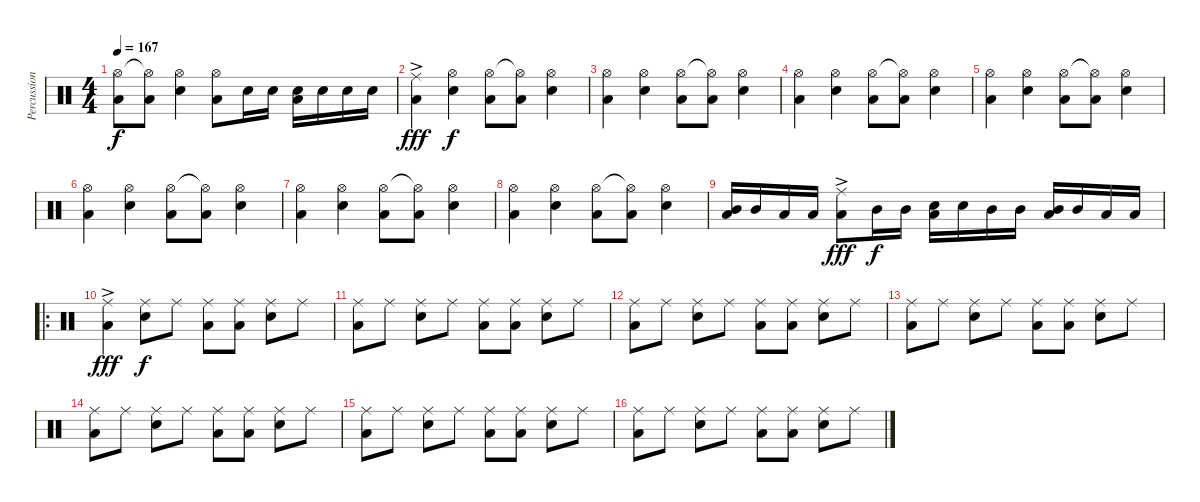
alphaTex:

\track ("Percussion" "Percussion") {instrument percussion}
\staff {score}
\articulation defaults
\ts (4 4)
\tempo 167
\clef neutral
\ks c
("Hi-Hat (open)" "Low Floor Tom (hit)").8{dy f} ("Hi-Hat (open)"{t} "Low Floor Tom (hit)").8 ("Hi-Hat (open)" "Snare (hit) 2").4 ("Hi-Hat (open)" "Low Floor Tom (hit)").8 "Snare (hit) 2".16 "Snare (hit) 2".16 ("Snare (hit) 2" "Low Floor Tom (hit)").16 "Snare (hit) 2".16 "Snare (hit) 2".16 "Snare (hit) 2".16 |
("Ride (middle)"{ac} "Low Floor Tom (hit)").4{dy fff} ("Hi-Hat (open)" "Snare (hit) 2").4{dy f} ("Hi-Hat (open)" "Low Floor Tom (hit)").8 ("Hi-Hat (open)"{t} "Low Floor Tom (hit)").8 ("Hi-Hat (open)" "Snare (hit) 2").4 |
("Hi-Hat (open)" "Low Floor Tom (hit)").4 ("Hi-Hat (open)" "Snare (hit) 2").4 ("Hi-Hat (open)" "Low Floor Tom (hit)").8 ("Hi-Hat (open)"{t} "Low Floor Tom (hit)").8 ("Hi-Hat (open)" "Snare (hit) 2").4 |
("Hi-Hat (open)" "Low Floor Tom (hit)").4 ("Hi-Hat (open)" "Snare (hit) 2").4 ("Hi-Hat (open)" "Low Floor Tom (hit)").8 ("Hi-Hat (open)"{t} "Low Floor Tom (hit)").8 ("Hi-Hat (open)" "Snare (hit) 2").4 |
("Hi-Hat (open)" "Low Floor Tom (hit)").4 ("Hi-Hat (open)" "Snare (hit) 2").4 ("Hi-Hat (open)" "Low Floor Tom (hit)").8 ("Hi-Hat (open)"{t} "Low Floor Tom (hit)").8 ("Hi-Hat (open)" "Snare (hit) 2").4 |
("Hi-Hat (open)" "Low Floor Tom (hit)").4 ("Hi-Hat (open)" "Snare (hit) 2").4 ("Hi-Hat (open)" "Low Floor Tom (hit)").8 ("Hi-Hat (open)"{t} "Low Floor Tom (hit)").8 ("Hi-Hat (open)" "Snare (hit) 2").4 |
("Hi-Hat (open)" "Low Floor Tom (hit)").4 ("Hi-Hat (open)" "Snare (hit) 2").4 ("Hi-Hat (open)" "Low Floor Tom (hit)").8 ("Hi-Hat (open)"{t} "Low Floor Tom (hit)").8 ("Hi-Hat (open)" "Snare (hit) 2").4 |
("Hi-Hat (open)" "Low Floor Tom (hit)").4 ("Hi-Hat (open)" "Snare (hit) 2").4 ("Hi-Hat (open)" "Low Floor Tom (hit)").8 ("Hi-Hat (open)"{t} "Low Floor Tom (hit)").8 ("Hi-Hat (open)" "Snare (hit) 2").4 |
("Mid Tom (hit)" "Low Floor Tom (hit)").16 "Mid Tom (hit)".16 "Low Tom (hit)".16 "Low Tom (hit)".16 ("Ride (middle)"{ac} "Low Floor Tom (hit)").8{dy fff} "Mid Tom (hit)".16{dy f} "Mid Tom (hit)".16 ("Snare (hit) 2" "Low Floor Tom (hit)").16 "Snare (hit) 2".16 "Mid Tom (hit)".16 "Mid Tom (hit)".16 ("Mid Tom (hit)" "Low Floor Tom (hit)").16 "Mid Tom (hit)".16 "Low Tom (hit)".16 "Low Tom (hit)".16 |
\ro
("Ride (middle)"{ac} "Low Floor Tom (hit)").4{dy fff} ("Ride (middle)" "Snare (hit) 2").8{dy f} "Ride (middle)".8 ("Ride (middle)" "Low Floor Tom (hit)").8 ("Ride (middle)" "Low Floor Tom (hit)").8 ("Ride (middle)" "Snare (hit) 2").8 "Ride (middle)".8 |
("Ride (middle)" "Low Floor Tom (hit)").8 "Ride (middle)".8 ("Ride (middle)" "Snare (hit) 2").8 "Ride (middle)".8 ("Ride (middle)" "Low Floor Tom (hit)").8 ("Ride (middle)" "Low Floor Tom (hit)").8 ("Ride (middle)" "Snare (hit) 2").8 "Ride (middle)".8 |
("Ride (middle)" "Low Floor Tom (hit)").8 "Ride (middle)".8 ("Ride (middle)" "Snare (hit) 2").8 "Ride (middle)".8 ("Ride (middle)" "Low Floor Tom (hit)").8 ("Ride (middle)" "Low Floor Tom (hit)").8 ("Ride (middle)" "Snare (hit) 2").8 "Ride (middle)".8 |
("Ride (middle)" "Low Floor Tom (hit)").8 "Ride (middle)".8 ("Ride (middle)" "Snare (hit) 2").8 "Ride (middle)".8 ("Ride (middle)" "Low Floor Tom (hit)").8 ("Ride (middle)" "Low Floor Tom (hit)").8 ("Ride (middle)" "Snare (hit) 2").8 "Ride (middle)".8 |
("Ride (middle)" "Low Floor Tom (hit)").8 "Ride (middle)".8 ("Ride (middle)" "Snare (hit) 2").8 "Ride (middle)".8 ("Ride (middle)" "Low Floor Tom (hit)").8 ("Ride (middle)" "Low Floor Tom (hit)").8 ("Ride (middle)" "Snare (hit) 2").8 "Ride (middle)".8 |
("Ride (middle)" "Low Floor Tom (hit)").8 "Ride (middle)".8 ("Ride (middle)" "Snare (hit) 2").8 "Ride (middle)".8 ("Ride (middle)" "Low Floor Tom (hit)").8 ("Ride (middle)" "Low Floor Tom (hit)").8 ("Ride (middle)" "Snare (hit) 2").8 "Ride (middle)".8 |
("Ride (middle)" "Low Floor Tom (hit)").8 "Ride (middle)".8 ("Ride (middle)" "Snare (hit) 2").8 "Ride (middle)".8 ("Ride (middle)" "Low Floor Tom (hit)").8 ("Ride (middle)" "Low Floor Tom (hit)").8 ("Ride (middle)" "Snare (hit) 2").8 "Ride (middle)".8
